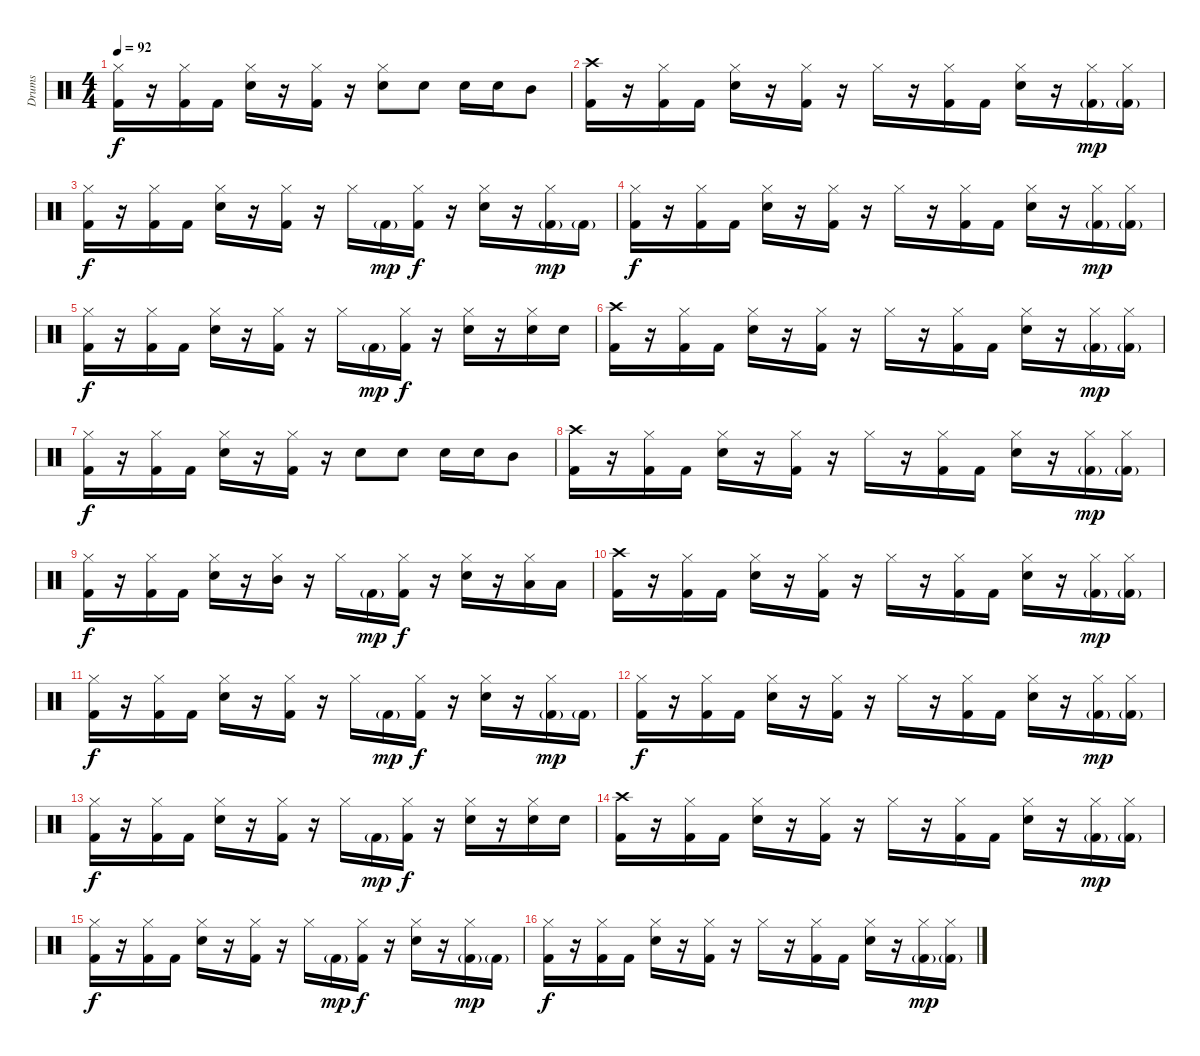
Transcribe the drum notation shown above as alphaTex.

\track ("Drums" "Drums") {instrument percussion}
\staff {score}
\articulation defaults
\ts (4 4)
\tempo 92
\clef neutral
\ks c
("Hi-Hat (closed)" "Kick (hit) 2").16{dy f} r.16 ("Hi-Hat (closed)" "Kick (hit) 2").16 "Kick (hit) 2".16 ("Hi-Hat (closed)" "Snare (hit) 2").16 r.16 ("Hi-Hat (closed)" "Kick (hit) 2").16 r.16 ("Hi-Hat (closed)" "Snare (hit) 2").8 "Snare (hit) 2".8 "Snare (hit) 2".16 "Snare (hit) 2".16 "Mid Tom (hit)".8 |
("Crash high (hit)" "Kick (hit) 2").16 r.16 ("Hi-Hat (closed)" "Kick (hit) 2").16 "Kick (hit) 2".16 ("Hi-Hat (closed)" "Snare (hit) 2").16 r.16 ("Hi-Hat (closed)" "Kick (hit) 2").16 r.16 "Hi-Hat (closed)".16 r.16 ("Hi-Hat (closed)" "Kick (hit) 2").16 "Kick (hit) 2".16 ("Hi-Hat (closed)" "Snare (hit) 2").16 r.16 ("Hi-Hat (closed)" "Kick (hit) 2"{g}).16{dy mp} ("Hi-Hat (closed)" "Kick (hit) 2"{g}).16 |
("Hi-Hat (closed)" "Kick (hit) 2").16{dy f} r.16 ("Hi-Hat (closed)" "Kick (hit) 2").16 "Kick (hit) 2".16 ("Hi-Hat (closed)" "Snare (hit) 2").16 r.16 ("Hi-Hat (closed)" "Kick (hit) 2").16 r.16 "Hi-Hat (closed)".16 "Kick (hit) 2"{g}.16{dy mp} ("Hi-Hat (closed)" "Kick (hit) 2").16{dy f} r.16 ("Hi-Hat (closed)" "Snare (hit) 2").16 r.16 ("Hi-Hat (closed)" "Kick (hit) 2"{g}).16{dy mp} "Kick (hit) 2"{g}.16 |
("Hi-Hat (closed)" "Kick (hit) 2").16{dy f} r.16 ("Hi-Hat (closed)" "Kick (hit) 2").16 "Kick (hit) 2".16 ("Hi-Hat (closed)" "Snare (hit) 2").16 r.16 ("Hi-Hat (closed)" "Kick (hit) 2").16 r.16 "Hi-Hat (closed)".16 r.16 ("Hi-Hat (closed)" "Kick (hit) 2").16 "Kick (hit) 2".16 ("Hi-Hat (closed)" "Snare (hit) 2").16 r.16 ("Hi-Hat (closed)" "Kick (hit) 2"{g}).16{dy mp} ("Hi-Hat (closed)" "Kick (hit) 2"{g}).16 |
("Hi-Hat (closed)" "Kick (hit) 2").16{dy f} r.16 ("Hi-Hat (closed)" "Kick (hit) 2").16 "Kick (hit) 2".16 ("Hi-Hat (closed)" "Snare (hit) 2").16 r.16 ("Hi-Hat (closed)" "Kick (hit) 2").16 r.16 "Hi-Hat (closed)".16 "Kick (hit) 2"{g}.16{dy mp} ("Hi-Hat (closed)" "Kick (hit) 2").16{dy f} r.16 ("Hi-Hat (closed)" "Snare (hit) 2").16 r.16 ("Hi-Hat (closed)" "Snare (hit) 2").16 "Snare (hit) 2".16 |
("Crash high (hit)" "Kick (hit) 2").16 r.16 ("Hi-Hat (closed)" "Kick (hit) 2").16 "Kick (hit) 2".16 ("Hi-Hat (closed)" "Snare (hit) 2").16 r.16 ("Hi-Hat (closed)" "Kick (hit) 2").16 r.16 "Hi-Hat (closed)".16 r.16 ("Hi-Hat (closed)" "Kick (hit) 2").16 "Kick (hit) 2".16 ("Hi-Hat (closed)" "Snare (hit) 2").16 r.16 ("Hi-Hat (closed)" "Kick (hit) 2"{g}).16{dy mp} ("Hi-Hat (closed)" "Kick (hit) 2"{g}).16 |
("Hi-Hat (closed)" "Kick (hit) 2").16{dy f} r.16 ("Hi-Hat (closed)" "Kick (hit) 2").16 "Kick (hit) 2".16 ("Hi-Hat (closed)" "Snare (hit) 2").16 r.16 ("Hi-Hat (closed)" "Kick (hit) 2").16 r.16 "Snare (hit) 2".8 "Snare (hit) 2".8 "Snare (hit) 2".16 "Snare (hit) 2".16 "Mid Tom (hit)".8 |
("Crash high (hit)" "Kick (hit) 2").16 r.16 ("Hi-Hat (closed)" "Kick (hit) 2").16 "Kick (hit) 2".16 ("Hi-Hat (closed)" "Snare (hit) 2").16 r.16 ("Hi-Hat (closed)" "Kick (hit) 2").16 r.16 "Hi-Hat (closed)".16 r.16 ("Hi-Hat (closed)" "Kick (hit) 2").16 "Kick (hit) 2".16 ("Hi-Hat (closed)" "Snare (hit) 2").16 r.16 ("Hi-Hat (closed)" "Kick (hit) 2"{g}).16{dy mp} ("Hi-Hat (closed)" "Kick (hit) 2"{g}).16 |
("Hi-Hat (closed)" "Kick (hit) 2").16{dy f} r.16 ("Hi-Hat (closed)" "Kick (hit) 2").16 "Kick (hit) 2".16 ("Hi-Hat (closed)" "Snare (hit) 2").16 r.16 ("Hi-Hat (closed)" "Mid Tom (hit)").16 r.16 "Hi-Hat (closed)".16 "Kick (hit) 2"{g}.16{dy mp} ("Hi-Hat (closed)" "Kick (hit) 2").16{dy f} r.16 ("Hi-Hat (closed)" "Snare (hit) 2").16 r.16 ("Hi-Hat (closed)" "Low Tom (hit)").16 "Low Floor Tom (hit)".16 |
("Crash high (hit)" "Kick (hit) 2").16 r.16 ("Hi-Hat (closed)" "Kick (hit) 2").16 "Kick (hit) 2".16 ("Hi-Hat (closed)" "Snare (hit) 2").16 r.16 ("Hi-Hat (closed)" "Kick (hit) 2").16 r.16 "Hi-Hat (closed)".16 r.16 ("Hi-Hat (closed)" "Kick (hit) 2").16 "Kick (hit) 2".16 ("Hi-Hat (closed)" "Snare (hit) 2").16 r.16 ("Hi-Hat (closed)" "Kick (hit) 2"{g}).16{dy mp} ("Hi-Hat (closed)" "Kick (hit) 2"{g}).16 |
("Hi-Hat (closed)" "Kick (hit) 2").16{dy f} r.16 ("Hi-Hat (closed)" "Kick (hit) 2").16 "Kick (hit) 2".16 ("Hi-Hat (closed)" "Snare (hit) 2").16 r.16 ("Hi-Hat (closed)" "Kick (hit) 2").16 r.16 "Hi-Hat (closed)".16 "Kick (hit) 2"{g}.16{dy mp} ("Hi-Hat (closed)" "Kick (hit) 2").16{dy f} r.16 ("Hi-Hat (closed)" "Snare (hit) 2").16 r.16 ("Hi-Hat (closed)" "Kick (hit) 2"{g}).16{dy mp} "Kick (hit) 2"{g}.16 |
("Hi-Hat (closed)" "Kick (hit) 2").16{dy f} r.16 ("Hi-Hat (closed)" "Kick (hit) 2").16 "Kick (hit) 2".16 ("Hi-Hat (closed)" "Snare (hit) 2").16 r.16 ("Hi-Hat (closed)" "Kick (hit) 2").16 r.16 "Hi-Hat (closed)".16 r.16 ("Hi-Hat (closed)" "Kick (hit) 2").16 "Kick (hit) 2".16 ("Hi-Hat (closed)" "Snare (hit) 2").16 r.16 ("Hi-Hat (closed)" "Kick (hit) 2"{g}).16{dy mp} ("Hi-Hat (closed)" "Kick (hit) 2"{g}).16 |
("Hi-Hat (closed)" "Kick (hit) 2").16{dy f} r.16 ("Hi-Hat (closed)" "Kick (hit) 2").16 "Kick (hit) 2".16 ("Hi-Hat (closed)" "Snare (hit) 2").16 r.16 ("Hi-Hat (closed)" "Kick (hit) 2").16 r.16 "Hi-Hat (closed)".16 "Kick (hit) 2"{g}.16{dy mp} ("Hi-Hat (closed)" "Kick (hit) 2").16{dy f} r.16 ("Hi-Hat (closed)" "Snare (hit) 2").16 r.16 ("Hi-Hat (closed)" "Snare (hit) 2").16 "Snare (hit) 2".16 |
("Crash high (hit)" "Kick (hit) 2").16 r.16 ("Hi-Hat (closed)" "Kick (hit) 2").16 "Kick (hit) 2".16 ("Hi-Hat (closed)" "Snare (hit) 2").16 r.16 ("Hi-Hat (closed)" "Kick (hit) 2").16 r.16 "Hi-Hat (closed)".16 r.16 ("Hi-Hat (closed)" "Kick (hit) 2").16 "Kick (hit) 2".16 ("Hi-Hat (closed)" "Snare (hit) 2").16 r.16 ("Hi-Hat (closed)" "Kick (hit) 2"{g}).16{dy mp} ("Hi-Hat (closed)" "Kick (hit) 2"{g}).16 |
("Hi-Hat (closed)" "Kick (hit) 2").16{dy f} r.16 ("Hi-Hat (closed)" "Kick (hit) 2").16 "Kick (hit) 2".16 ("Hi-Hat (closed)" "Snare (hit) 2").16 r.16 ("Hi-Hat (closed)" "Kick (hit) 2").16 r.16 "Hi-Hat (closed)".16 "Kick (hit) 2"{g}.16{dy mp} ("Hi-Hat (closed)" "Kick (hit) 2").16{dy f} r.16 ("Hi-Hat (closed)" "Snare (hit) 2").16 r.16 ("Hi-Hat (closed)" "Kick (hit) 2"{g}).16{dy mp} "Kick (hit) 2"{g}.16 |
("Hi-Hat (closed)" "Kick (hit) 2").16{dy f} r.16 ("Hi-Hat (closed)" "Kick (hit) 2").16 "Kick (hit) 2".16 ("Hi-Hat (closed)" "Snare (hit) 2").16 r.16 ("Hi-Hat (closed)" "Kick (hit) 2").16 r.16 "Hi-Hat (closed)".16 r.16 ("Hi-Hat (closed)" "Kick (hit) 2").16 "Kick (hit) 2".16 ("Hi-Hat (closed)" "Snare (hit) 2").16 r.16 ("Hi-Hat (closed)" "Kick (hit) 2"{g}).16{dy mp} ("Hi-Hat (closed)" "Kick (hit) 2"{g}).16
